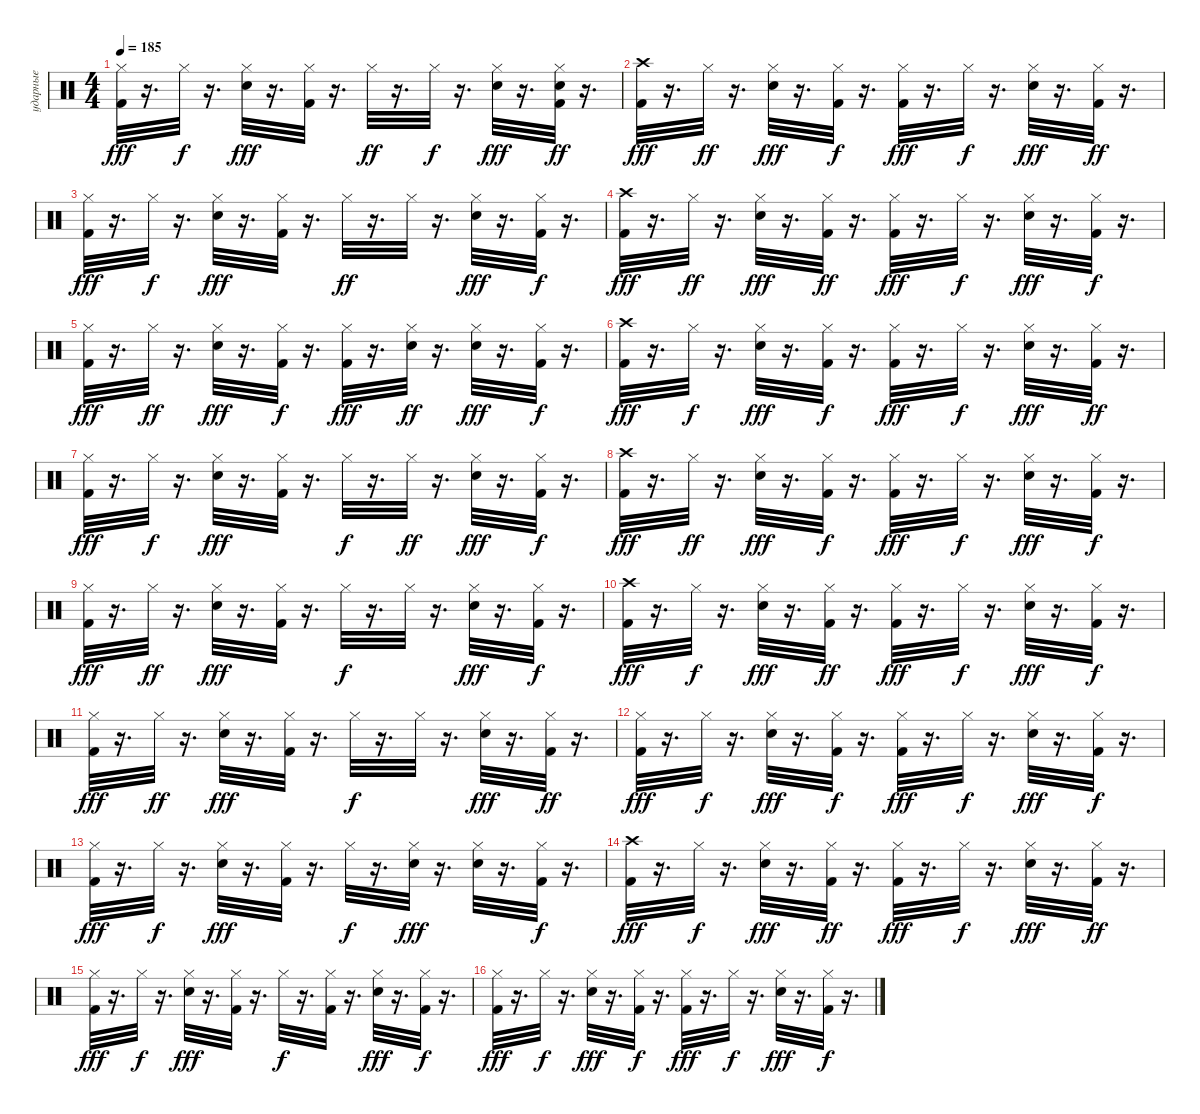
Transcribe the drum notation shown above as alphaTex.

\track ("ударные" "ударные") {instrument percussion}
\staff {score}
\articulation defaults
\ts (4 4)
\tempo 185
\clef neutral
\ks c
("Hi-Hat (closed)" "Kick (hit) 2").32{dy fff} r.16{d} "Hi-Hat (closed)".32{dy f} r.16{d} ("Hi-Hat (closed)" "Electric Snare (hit)").32{dy fff} r.16{d} ("Hi-Hat (closed)" "Kick (hit) 2").32 r.16{d} "Hi-Hat (closed)".32{dy ff} r.16{d} "Hi-Hat (closed)".32{dy f} r.16{d} ("Hi-Hat (closed)" "Electric Snare (hit)").32{dy fff} r.16{d} ("Electric Snare (hit)" "Hi-Hat (closed)" "Kick (hit) 2").32{dy ff} r.16{d} |
("Crash high (hit)" "Kick (hit) 2").32{dy fff} r.16{d} "Hi-Hat (closed)".32{dy ff} r.16{d} ("Hi-Hat (closed)" "Electric Snare (hit)").32{dy fff} r.16{d} ("Hi-Hat (closed)" "Kick (hit) 2").32{dy f} r.16{d} ("Hi-Hat (closed)" "Kick (hit) 2").32{dy fff} r.16{d} "Hi-Hat (closed)".32{dy f} r.16{d} ("Hi-Hat (closed)" "Electric Snare (hit)").32{dy fff} r.16{d} ("Hi-Hat (closed)" "Kick (hit) 2").32{dy ff} r.16{d} |
("Hi-Hat (closed)" "Kick (hit) 2").32{dy fff} r.16{d} "Hi-Hat (closed)".32{dy f} r.16{d} ("Hi-Hat (closed)" "Electric Snare (hit)").32{dy fff} r.16{d} ("Hi-Hat (closed)" "Kick (hit) 2").32 r.16{d} "Hi-Hat (closed)".32{dy ff} r.16{d} "Hi-Hat (closed)".32 r.16{d} ("Hi-Hat (closed)" "Electric Snare (hit)").32{dy fff} r.16{d} ("Hi-Hat (closed)" "Kick (hit) 2").32{dy f} r.16{d} |
("Crash high (hit)" "Kick (hit) 2").32{dy fff} r.16{d} "Hi-Hat (closed)".32{dy ff} r.16{d} ("Hi-Hat (closed)" "Electric Snare (hit)").32{dy fff} r.16{d} ("Hi-Hat (closed)" "Kick (hit) 2").32{dy ff} r.16{d} ("Hi-Hat (closed)" "Kick (hit) 2").32{dy fff} r.16{d} "Hi-Hat (closed)".32{dy f} r.16{d} ("Hi-Hat (closed)" "Electric Snare (hit)").32{dy fff} r.16{d} ("Hi-Hat (closed)" "Kick (hit) 2").32{dy f} r.16{d} |
("Hi-Hat (closed)" "Kick (hit) 2").32{dy fff} r.16{d} "Hi-Hat (closed)".32{dy ff} r.16{d} ("Hi-Hat (closed)" "Electric Snare (hit)").32{dy fff} r.16{d} ("Hi-Hat (closed)" "Kick (hit) 2").32{dy f} r.16{d} ("Hi-Hat (closed)" "Kick (hit) 2").32{dy fff} r.16{d} ("Electric Snare (hit)" "Hi-Hat (closed)").32{dy ff} r.16{d} ("Hi-Hat (closed)" "Electric Snare (hit)").32{dy fff} r.16{d} ("Hi-Hat (closed)" "Kick (hit) 2").32{dy f} r.16{d} |
("Crash high (hit)" "Kick (hit) 2").32{dy fff} r.16{d} "Hi-Hat (closed)".32{dy f} r.16{d} ("Hi-Hat (closed)" "Electric Snare (hit)").32{dy fff} r.16{d} ("Hi-Hat (closed)" "Kick (hit) 2").32{dy f} r.16{d} ("Hi-Hat (closed)" "Kick (hit) 2").32{dy fff} r.16{d} "Hi-Hat (closed)".32{dy f} r.16{d} ("Hi-Hat (closed)" "Electric Snare (hit)").32{dy fff} r.16{d} ("Hi-Hat (closed)" "Kick (hit) 2").32{dy ff} r.16{d} |
("Hi-Hat (closed)" "Kick (hit) 2").32{dy fff} r.16{d} "Hi-Hat (closed)".32{dy f} r.16{d} ("Hi-Hat (closed)" "Electric Snare (hit)").32{dy fff} r.16{d} ("Hi-Hat (closed)" "Kick (hit) 2").32 r.16{d} "Hi-Hat (closed)".32{dy f} r.16{d} "Hi-Hat (closed)".32{dy ff} r.16{d} ("Hi-Hat (closed)" "Electric Snare (hit)").32{dy fff} r.16{d} ("Hi-Hat (closed)" "Kick (hit) 2").32{dy f} r.16{d} |
("Crash high (hit)" "Kick (hit) 2").32{dy fff} r.16{d} "Hi-Hat (closed)".32{dy ff} r.16{d} ("Hi-Hat (closed)" "Electric Snare (hit)").32{dy fff} r.16{d} ("Hi-Hat (closed)" "Kick (hit) 2").32{dy f} r.16{d} ("Hi-Hat (closed)" "Kick (hit) 2").32{dy fff} r.16{d} "Hi-Hat (closed)".32{dy f} r.16{d} ("Hi-Hat (closed)" "Electric Snare (hit)").32{dy fff} r.16{d} ("Hi-Hat (closed)" "Kick (hit) 2").32{dy f} r.16{d} |
("Hi-Hat (closed)" "Kick (hit) 2").32{dy fff} r.16{d} "Hi-Hat (closed)".32{dy ff} r.16{d} ("Hi-Hat (closed)" "Electric Snare (hit)").32{dy fff} r.16{d} ("Hi-Hat (closed)" "Kick (hit) 2").32 r.16{d} "Hi-Hat (closed)".32{dy f} r.16{d} "Hi-Hat (closed)".32 r.16{d} ("Hi-Hat (closed)" "Electric Snare (hit)").32{dy fff} r.16{d} ("Hi-Hat (closed)" "Kick (hit) 2").32{dy f} r.16{d} |
("Crash high (hit)" "Kick (hit) 2").32{dy fff} r.16{d} "Hi-Hat (closed)".32{dy f} r.16{d} ("Hi-Hat (closed)" "Electric Snare (hit)").32{dy fff} r.16{d} ("Hi-Hat (closed)" "Kick (hit) 2").32{dy ff} r.16{d} ("Hi-Hat (closed)" "Kick (hit) 2").32{dy fff} r.16{d} "Hi-Hat (closed)".32{dy f} r.16{d} ("Hi-Hat (closed)" "Electric Snare (hit)").32{dy fff} r.16{d} ("Hi-Hat (closed)" "Kick (hit) 2").32{dy f} r.16{d} |
("Hi-Hat (closed)" "Kick (hit) 2").32{dy fff} r.16{d} "Hi-Hat (closed)".32{dy ff} r.16{d} ("Hi-Hat (closed)" "Electric Snare (hit)").32{dy fff} r.16{d} ("Hi-Hat (closed)" "Kick (hit) 2").32 r.16{d} "Hi-Hat (closed)".32{dy f} r.16{d} "Hi-Hat (closed)".32 r.16{d} ("Hi-Hat (closed)" "Electric Snare (hit)").32{dy fff} r.16{d} ("Hi-Hat (closed)" "Kick (hit) 2").32{dy ff} r.16{d} |
("Hi-Hat (closed)" "Kick (hit) 2").32{dy fff} r.16{d} "Hi-Hat (closed)".32{dy f} r.16{d} ("Hi-Hat (closed)" "Electric Snare (hit)").32{dy fff} r.16{d} ("Hi-Hat (closed)" "Kick (hit) 2").32{dy f} r.16{d} ("Hi-Hat (closed)" "Kick (hit) 2").32{dy fff} r.16{d} "Hi-Hat (closed)".32{dy f} r.16{d} ("Hi-Hat (closed)" "Electric Snare (hit)").32{dy fff} r.16{d} ("Hi-Hat (closed)" "Kick (hit) 2").32{dy f} r.16{d} |
("Hi-Hat (closed)" "Kick (hit) 2").32{dy fff} r.16{d} "Hi-Hat (closed)".32{dy f} r.16{d} ("Hi-Hat (closed)" "Electric Snare (hit)").32{dy fff} r.16{d} ("Hi-Hat (closed)" "Kick (hit) 2").32 r.16{d} "Hi-Hat (closed)".32{dy f} r.16{d} ("Electric Snare (hit)" "Hi-Hat (closed)").32{dy fff} r.16{d} ("Hi-Hat (closed)" "Electric Snare (hit)").32 r.16{d} ("Hi-Hat (closed)" "Kick (hit) 2").32{dy f} r.16{d} |
("Crash high (hit)" "Kick (hit) 2").32{dy fff} r.16{d} "Hi-Hat (closed)".32{dy f} r.16{d} ("Hi-Hat (closed)" "Electric Snare (hit)").32{dy fff} r.16{d} ("Hi-Hat (closed)" "Kick (hit) 2").32{dy ff} r.16{d} ("Hi-Hat (closed)" "Kick (hit) 2").32{dy fff} r.16{d} "Hi-Hat (closed)".32{dy f} r.16{d} ("Hi-Hat (closed)" "Electric Snare (hit)").32{dy fff} r.16{d} ("Hi-Hat (closed)" "Kick (hit) 2").32{dy ff} r.16{d} |
("Hi-Hat (closed)" "Kick (hit) 2").32{dy fff} r.16{d} "Hi-Hat (closed)".32{dy f} r.16{d} ("Hi-Hat (closed)" "Electric Snare (hit)").32{dy fff} r.16{d} ("Hi-Hat (closed)" "Kick (hit) 2").32 r.16{d} "Hi-Hat (closed)".32{dy f} r.16{d} ("Kick (hit) 2" "Hi-Hat (closed)").32 r.16{d} ("Hi-Hat (closed)" "Electric Snare (hit)").32{dy fff} r.16{d} ("Hi-Hat (closed)" "Kick (hit) 2").32{dy f} r.16{d} |
("Hi-Hat (closed)" "Kick (hit) 2").32{dy fff} r.16{d} "Hi-Hat (closed)".32{dy f} r.16{d} ("Hi-Hat (closed)" "Electric Snare (hit)").32{dy fff} r.16{d} ("Hi-Hat (closed)" "Kick (hit) 2").32{dy f} r.16{d} ("Hi-Hat (closed)" "Kick (hit) 2").32{dy fff} r.16{d} "Hi-Hat (closed)".32{dy f} r.16{d} ("Hi-Hat (closed)" "Electric Snare (hit)").32{dy fff} r.16{d} ("Hi-Hat (closed)" "Kick (hit) 2").32{dy f} r.16{d}
